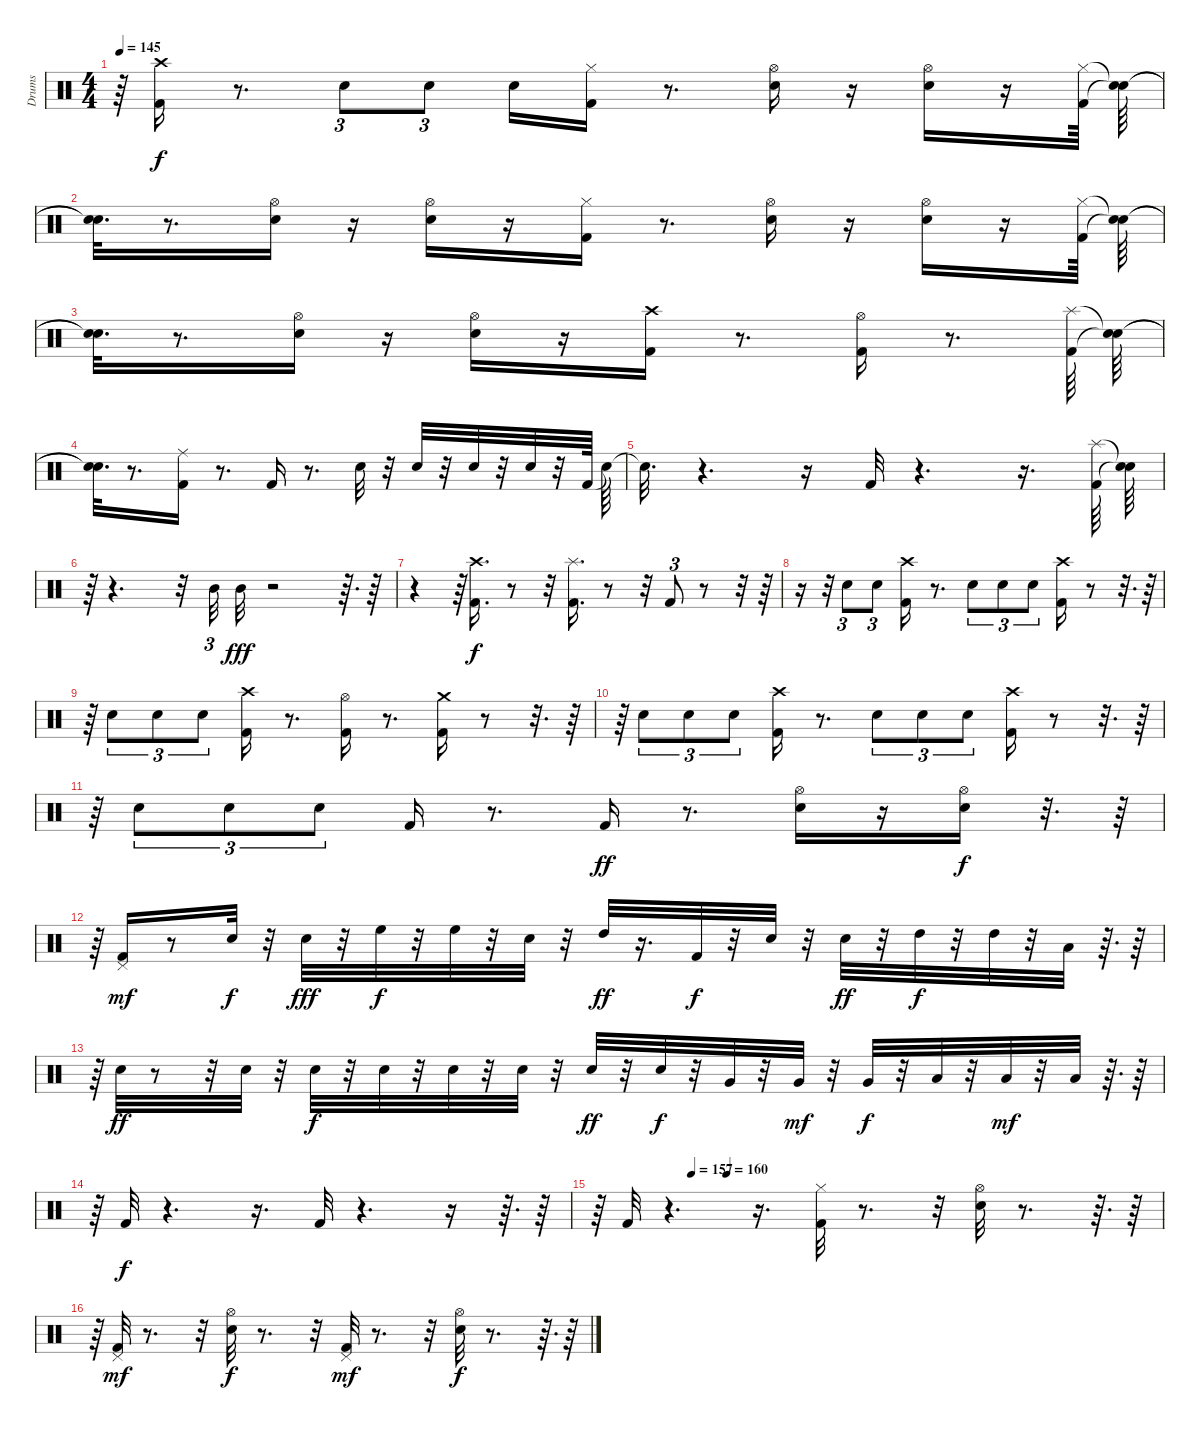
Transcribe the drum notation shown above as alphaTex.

\track ("Drums" "Drums") {instrument percussion}
\staff {score}
\articulation defaults
\ts (4 4)
\tempo 145
\clef neutral
\ks c
r.64{dy f} ("Kick (hit) 2" "Crash high (hit)").16 r.8{d} "Snare (hit) 2".8{tu (3 2)} "Snare (hit) 2".8{tu (3 2)} "Snare (hit) 2".16 ("Kick (hit) 2" "Hi-Hat (closed)").16{volume 12} r.8{d} ("Hi-Hat (open)" "Snare (hit) 2").16 r.16 ("Snare (hit) 2" "Hi-Hat (open)").16 r.16 ("Kick (hit) 2" "Hi-Hat (closed)").64 ("Snare (hit)"{t} "Snare (hit)"{t}).64 |
("Snare (hit)"{t} "Snare (hit)"{t}).32{d} r.8{d} ("Snare (hit) 2" "Hi-Hat (open)").16 r.16 ("Hi-Hat (open)" "Snare (hit) 2").16 r.16 ("Hi-Hat (closed)" "Kick (hit) 2").16 r.8{d} ("Snare (hit) 2" "Hi-Hat (open)").16 r.16 ("Hi-Hat (open)" "Snare (hit) 2").16 r.16 ("Kick (hit) 2" "Hi-Hat (closed)").64 ("Snare (hit)"{t} "Snare (hit)"{t}).64 |
("Snare (hit)"{t} "Snare (hit)"{t}).32{d} r.8{d} ("Snare (hit) 2" "Hi-Hat (open)").16 r.16 ("Snare (hit) 2" "Hi-Hat (open)").16 r.16 ("Kick (hit) 2" "Crash high (hit)").16 r.8{d} ("Kick (hit) 2" "Hi-Hat (open)").16 r.8{d} ("Kick (hit) 2" "Splash (hit)").64 ("Snare (hit)"{t} "Snare (hit)"{t}).64 |
("Snare (hit)"{t} "Snare (hit)"{t}).32{d} r.8{d} ("Kick (hit) 2" "Ride (middle)").16 r.8{d} "Kick (hit) 2".16 r.8{d} "Snare (hit) 2".32 r.32 "Snare (hit) 2".32 r.32 "Snare (hit) 2".32 r.32 "Snare (hit) 2".32 r.32 "Kick (hit) 2".64 "Snare (hit)"{t}.64 |
"Snare (hit)"{t}.32{d} r.4{d} r.16 "Kick (hit) 2".32 r.4{d} r.16{d} ("Splash (hit)" "Kick (hit) 2").64 ("Snare (hit)"{t} "Snare (hit)"{t}).64 |
r.64 r.4{d} r.32 "Mid Tom (hit)".32{tu (3 2)} "Mid Tom (hit)".32{dy fff} r.2 r.64{d} r.64 |
r.4 r.64 ("Kick (hit) 2" "Crash high (hit)").16{d dy f volume 14} r.8 r.32 ("Kick (hit) 2" "Splash (hit)").16{d} r.8 r.32 "Kick (hit) 2".8{tu (3 2)} r.8 r.32 r.64 |
r.16 r.32{tu (5 4)} "Snare (hit) 2".8{tu (3 2)} "Snare (hit) 2".8{tu (3 2)} ("Crash high (hit)" "Kick (hit) 2").16 r.8{d} "Snare (hit) 2".8{tu (3 2)} "Snare (hit) 2".8{tu (3 2)} "Snare (hit) 2".8{tu (3 2)} ("Crash high (hit)" "Kick (hit) 2").16 r.8 r.32{d} r.64 |
r.64 "Snare (hit) 2".8{tu (3 2)} "Snare (hit) 2".8{tu (3 2)} "Snare (hit) 2".8{tu (3 2)} ("Crash high (hit)" "Kick (hit) 2").16 r.8{d} ("Hi-Hat (open)" "Kick (hit) 2").16 r.8{d} ("Kick (hit) 2" "Crash medium (hit)").16 r.8 r.32{d} r.64 |
r.64 "Snare (hit) 2".8{tu (3 2)} "Snare (hit) 2".8{tu (3 2)} "Snare (hit) 2".8{tu (3 2)} ("Crash high (hit)" "Kick (hit) 2").16 r.8{d} "Snare (hit) 2".8{tu (3 2)} "Snare (hit) 2".8{tu (3 2)} "Snare (hit) 2".8{tu (3 2)} ("Crash high (hit)" "Kick (hit) 2").16 r.8 r.32{d} r.64 |
r.64 "Snare (hit) 2".8{tu (3 2)} "Snare (hit) 2".8{tu (3 2)} "Snare (hit) 2".8{tu (3 2)} "Kick (hit) 2".16 r.8{d} "Kick (hit) 2".16{dy ff} r.8{d} ("Hi-Hat (open)" "Snare (hit) 2").16 r.16 ("Snare (hit) 2" "Hi-Hat (open)").16{dy f} r.32{d} r.64 |
r.64 ("Pedal Hi-Hat (hit)" "Kick (hit) 2").16{dy mf} r.8 "Snare (hit) 2".32{dy f} r.32 "Snare (hit) 2".32{dy fff} r.32 "High Floor Tom (hit)".32{dy f} r.32 "High Floor Tom (hit)".32 r.32 "Snare (hit) 2".32 r.32 "High Tom (hit)".32{dy ff} r.16{d} "Kick (hit) 2".32{dy f} r.32 "Snare (hit) 2".32 r.32 "Snare (hit) 2".32{dy ff} r.32 "High Tom (hit)".32{dy f} r.32 "High Tom (hit)".32 r.32 "Low Tom (hit)".32 r.64{d} r.64 |
r.64 "Snare (hit) 2".32{dy ff} r.8 r.32 "Snare (hit) 2".32 r.32 "Snare (hit) 2".32{dy f} r.32 "Snare (hit) 2".32 r.32 "Snare (hit) 2".32 r.32 "Snare (hit) 2".32 r.32 "Snare (hit) 2".32{dy ff} r.32 "Snare (hit) 2".32{dy f} r.32 "Very Low Tom (hit)".32 r.32 "Very Low Tom (hit)".32{dy mf} r.32 "Very Low Tom (hit)".32{dy f} r.32 "Low Floor Tom (hit)".32 r.32 "Low Floor Tom (hit)".32{dy mf} r.32 "Low Floor Tom (hit)".32 r.64{d} r.64 |
r.64 "Kick (hit) 2".32{dy f} r.4{d} r.16{d} "Kick (hit) 2".32 r.4{d} r.16 r.64{d} r.64 |
\tempo (157 0.16666666666666666)
\tempo (160 0.22916666666666666)
r.64 "Kick (hit) 2".32 r.4{d} r.16{d} ("Hi-Hat (closed)" "Kick (hit) 2").32 r.8{d} r.32 ("Hi-Hat (open)" "Snare (hit) 2").32 r.8{d} r.64{d} r.64 |
r.64 ("Pedal Hi-Hat (hit)" "Kick (hit) 2").32{dy mf} r.8{d} r.32 ("Hi-Hat (open)" "Snare (hit) 2").32{dy f} r.8{d} r.32 ("Kick (hit) 2" "Pedal Hi-Hat (hit)").32{dy mf} r.8{d} r.32 ("Hi-Hat (open)" "Snare (hit) 2").32{dy f} r.8{d} r.64{d} r.64
